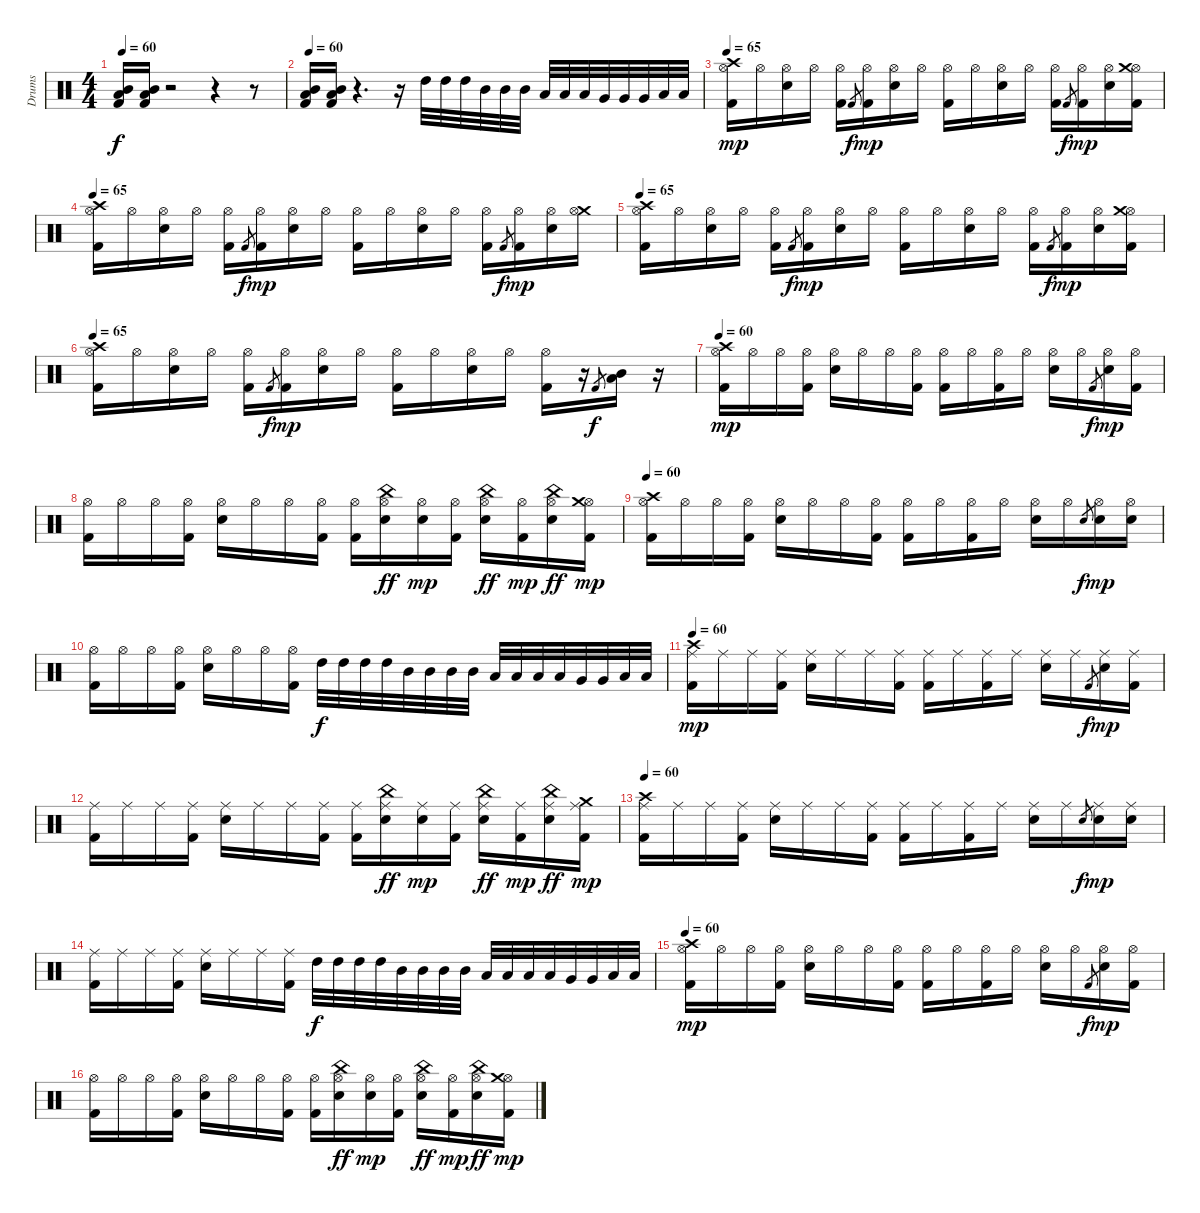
\track ("Drums" "Drums") {instrument percussion}
\staff {score}
\articulation defaults
\ts (4 4)
\tempo 60
\clef neutral
\ks c
("Mid Tom (hit)" "Low Tom (hit)" "Kick (hit) 2").16{dy f} ("Mid Tom (hit)" "Low Tom (hit)" "Kick (hit) 2").16 r.2 r.4 r.8 |
\tempo 60
("Mid Tom (hit)" "Low Tom (hit)" "Kick (hit) 2").16 ("Mid Tom (hit)" "Low Tom (hit)" "Kick (hit) 2").16 r.4{d} r.16 "High Tom (hit)".32 "High Tom (hit)".32 "High Tom (hit)".32 "Mid Tom (hit)".32 "Mid Tom (hit)".32 "Mid Tom (hit)".32 "Low Tom (hit)".32 "Low Tom (hit)".32 "Low Tom (hit)".32 "Very Low Tom (hit)".32 "Very Low Tom (hit)".32 "Very Low Tom (hit)".32 "Low Floor Tom (hit)".32 "Low Floor Tom (hit)".32 |
\tempo 60
\tempo 65
("Crash high (hit)" "Hi-Hat (open)" "Kick (hit) 2").16{dy mp} "Hi-Hat (open)".16 ("Hi-Hat (open)" "Snare (hit) 2").16 "Hi-Hat (open)".16 ("Hi-Hat (open)" "Kick (hit) 2").16 "Kick (hit) 2".8{gr dy f} ("Hi-Hat (open)" "Kick (hit) 2").16{dy mp} ("Hi-Hat (open)" "Snare (hit) 2").16 "Hi-Hat (open)".16 ("Hi-Hat (open)" "Kick (hit) 2").16 "Hi-Hat (open)".16 ("Hi-Hat (open)" "Snare (hit) 2").16 "Hi-Hat (open)".16 ("Hi-Hat (open)" "Kick (hit) 2").16 "Kick (hit) 2".8{gr dy f} ("Hi-Hat (open)" "Kick (hit) 2").16{dy mp} ("Hi-Hat (open)" "Snare (hit) 2").16 ("Hi-Hat (open)" "Crash medium (hit)" "Kick (hit) 2").16 |
\tempo 60
\tempo 65
("Crash high (hit)" "Hi-Hat (open)" "Kick (hit) 2").16 "Hi-Hat (open)".16 ("Hi-Hat (open)" "Snare (hit) 2").16 "Hi-Hat (open)".16 ("Hi-Hat (open)" "Kick (hit) 2").16 "Kick (hit) 2".8{gr dy f} ("Hi-Hat (open)" "Kick (hit) 2").16{dy mp} ("Hi-Hat (open)" "Snare (hit) 2").16 "Hi-Hat (open)".16 ("Hi-Hat (open)" "Kick (hit) 2").16 "Hi-Hat (open)".16 ("Hi-Hat (open)" "Snare (hit) 2").16 "Hi-Hat (open)".16 ("Hi-Hat (open)" "Kick (hit) 2").16 "Kick (hit) 2".8{gr dy f} ("Hi-Hat (open)" "Kick (hit) 2").16{dy mp} ("Hi-Hat (open)" "Snare (hit) 2").16 ("Crash medium (hit)" "Hi-Hat (open)").16 |
\tempo 60
\tempo 65
("Crash high (hit)" "Hi-Hat (open)" "Kick (hit) 2").16 "Hi-Hat (open)".16 ("Hi-Hat (open)" "Snare (hit) 2").16 "Hi-Hat (open)".16 ("Hi-Hat (open)" "Kick (hit) 2").16 "Kick (hit) 2".8{gr dy f} ("Hi-Hat (open)" "Kick (hit) 2").16{dy mp} ("Hi-Hat (open)" "Snare (hit) 2").16 "Hi-Hat (open)".16 ("Hi-Hat (open)" "Kick (hit) 2").16 "Hi-Hat (open)".16 ("Hi-Hat (open)" "Snare (hit) 2").16 "Hi-Hat (open)".16 ("Hi-Hat (open)" "Kick (hit) 2").16 "Kick (hit) 2".8{gr dy f} ("Hi-Hat (open)" "Kick (hit) 2").16{dy mp} ("Hi-Hat (open)" "Snare (hit) 2").16 ("Hi-Hat (open)" "Crash medium (hit)" "Kick (hit) 2").16 |
\tempo 60
\tempo 65
("Crash high (hit)" "Hi-Hat (open)" "Kick (hit) 2").16 "Hi-Hat (open)".16 ("Hi-Hat (open)" "Snare (hit) 2").16 "Hi-Hat (open)".16 ("Hi-Hat (open)" "Kick (hit) 2").16 "Kick (hit) 2".8{gr dy f} ("Hi-Hat (open)" "Kick (hit) 2").16{dy mp} ("Hi-Hat (open)" "Snare (hit) 2").16 "Hi-Hat (open)".16 ("Hi-Hat (open)" "Kick (hit) 2").16 "Hi-Hat (open)".16 ("Hi-Hat (open)" "Snare (hit) 2").16 "Hi-Hat (open)".16 ("Hi-Hat (open)" "Kick (hit) 2").16 r.16 "Kick (hit) 2".8{gr dy f} ("Mid Tom (hit)" "Low Tom (hit)").16 r.16 |
\tempo 60
("Crash high (hit)" "Hi-Hat (open)" "Kick (hit) 2").16{dy mp} "Hi-Hat (open)".16 "Hi-Hat (open)".16 ("Hi-Hat (open)" "Kick (hit) 2").16 ("Hi-Hat (open)" "Snare (hit) 2").16 "Hi-Hat (open)".16 "Hi-Hat (open)".16 ("Hi-Hat (open)" "Kick (hit) 2").16 ("Hi-Hat (open)" "Kick (hit) 2").16 "Hi-Hat (open)".16 ("Hi-Hat (open)" "Kick (hit) 2").16 "Hi-Hat (open)".16 ("Hi-Hat (open)" "Snare (hit) 2").16 "Hi-Hat (open)".16 "Kick (hit) 2".8{gr dy f} ("Hi-Hat (open)" "Snare (hit) 2").16{dy mp} ("Hi-Hat (open)" "Kick (hit) 2").16 |
("Hi-Hat (open)" "Kick (hit) 2").16 "Hi-Hat (open)".16 "Hi-Hat (open)".16 ("Hi-Hat (open)" "Kick (hit) 2").16 ("Hi-Hat (open)" "Snare (hit) 2").16 "Hi-Hat (open)".16 "Hi-Hat (open)".16 ("Hi-Hat (open)" "Kick (hit) 2").16 ("Hi-Hat (open)" "Kick (hit) 2").16 ("Hi-Hat (open)" "China (hit)" "Snare (hit) 2").16{dy ff} ("Hi-Hat (open)" "Snare (hit) 2").16{dy mp} ("Hi-Hat (open)" "Kick (hit) 2").16 ("Hi-Hat (open)" "China (hit)" "Snare (hit) 2").16{dy ff} ("Hi-Hat (open)" "Kick (hit) 2").16{dy mp} ("Hi-Hat (open)" "China (hit)" "Snare (hit) 2").16{dy ff} ("Hi-Hat (open)" "Crash medium (hit)" "Kick (hit) 2").16{dy mp} |
\tempo 60
("Crash high (hit)" "Hi-Hat (open)" "Kick (hit) 2").16 "Hi-Hat (open)".16 "Hi-Hat (open)".16 ("Hi-Hat (open)" "Kick (hit) 2").16 ("Hi-Hat (open)" "Snare (hit) 2").16 "Hi-Hat (open)".16 "Hi-Hat (open)".16 ("Hi-Hat (open)" "Kick (hit) 2").16 ("Hi-Hat (open)" "Kick (hit) 2").16 "Hi-Hat (open)".16 ("Hi-Hat (open)" "Kick (hit) 2").16 "Hi-Hat (open)".16 ("Hi-Hat (open)" "Snare (hit) 2").16 "Hi-Hat (open)".16 "Snare (hit) 2".8{gr dy f} ("Hi-Hat (open)" "Snare (hit) 2").16{dy mp} ("Hi-Hat (open)" "Snare (hit) 2").16 |
("Hi-Hat (open)" "Kick (hit) 2").16 "Hi-Hat (open)".16 "Hi-Hat (open)".16 ("Hi-Hat (open)" "Kick (hit) 2").16 ("Hi-Hat (open)" "Snare (hit) 2").16 "Hi-Hat (open)".16 "Hi-Hat (open)".16 ("Hi-Hat (open)" "Kick (hit) 2").16 "High Tom (hit)".32{dy f} "High Tom (hit)".32 "High Tom (hit)".32 "High Tom (hit)".32 "Mid Tom (hit)".32 "Mid Tom (hit)".32 "Mid Tom (hit)".32 "Mid Tom (hit)".32 "Low Tom (hit)".32 "Low Tom (hit)".32 "Low Tom (hit)".32 "Low Tom (hit)".32 "Very Low Tom (hit)".32 "Very Low Tom (hit)".32 "Low Floor Tom (hit)".32 "Low Floor Tom (hit)".32 |
\tempo 60
("Crash high (hit)" "Ride (middle)" "Kick (hit) 2").16{dy mp} "Ride (middle)".16 "Ride (middle)".16 ("Ride (middle)" "Kick (hit) 2").16 ("Ride (middle)" "Snare (hit) 2").16 "Ride (middle)".16 "Ride (middle)".16 ("Ride (middle)" "Kick (hit) 2").16 ("Ride (middle)" "Kick (hit) 2").16 "Ride (middle)".16 ("Ride (middle)" "Kick (hit) 2").16 "Ride (middle)".16 ("Ride (middle)" "Snare (hit) 2").16 "Ride (middle)".16 "Kick (hit) 2".8{gr dy f} ("Ride (middle)" "Snare (hit) 2").16{dy mp} ("Ride (middle)" "Kick (hit) 2").16 |
("Ride (middle)" "Kick (hit) 2").16 "Ride (middle)".16 "Ride (middle)".16 ("Ride (middle)" "Kick (hit) 2").16 ("Ride (middle)" "Snare (hit) 2").16 "Ride (middle)".16 "Ride (middle)".16 ("Ride (middle)" "Kick (hit) 2").16 ("Ride (middle)" "Kick (hit) 2").16 ("Ride (middle)" "China (hit)" "Snare (hit) 2").16{dy ff} ("Ride (middle)" "Snare (hit) 2").16{dy mp} ("Ride (middle)" "Kick (hit) 2").16 ("Ride (middle)" "China (hit)" "Snare (hit) 2").16{dy ff} ("Ride (middle)" "Kick (hit) 2").16{dy mp} ("Ride (middle)" "China (hit)" "Snare (hit) 2").16{dy ff} ("Ride (middle)" "Crash medium (hit)" "Kick (hit) 2").16{dy mp} |
\tempo 60
("Crash high (hit)" "Ride (middle)" "Kick (hit) 2").16 "Ride (middle)".16 "Ride (middle)".16 ("Ride (middle)" "Kick (hit) 2").16 ("Ride (middle)" "Snare (hit) 2").16 "Ride (middle)".16 "Ride (middle)".16 ("Ride (middle)" "Kick (hit) 2").16 ("Ride (middle)" "Kick (hit) 2").16 "Ride (middle)".16 ("Ride (middle)" "Kick (hit) 2").16 "Ride (middle)".16 ("Ride (middle)" "Snare (hit) 2").16 "Ride (middle)".16 "Snare (hit) 2".8{gr dy f} ("Ride (middle)" "Snare (hit) 2").16{dy mp} ("Ride (middle)" "Snare (hit) 2").16 |
("Ride (middle)" "Kick (hit) 2").16 "Ride (middle)".16 "Ride (middle)".16 ("Ride (middle)" "Kick (hit) 2").16 ("Ride (middle)" "Snare (hit) 2").16 "Ride (middle)".16 "Ride (middle)".16 ("Ride (middle)" "Kick (hit) 2").16 "High Tom (hit)".32{dy f} "High Tom (hit)".32 "High Tom (hit)".32 "High Tom (hit)".32 "Mid Tom (hit)".32 "Mid Tom (hit)".32 "Mid Tom (hit)".32 "Mid Tom (hit)".32 "Low Tom (hit)".32 "Low Tom (hit)".32 "Low Tom (hit)".32 "Low Tom (hit)".32 "Very Low Tom (hit)".32 "Very Low Tom (hit)".32 "Low Floor Tom (hit)".32 "Low Floor Tom (hit)".32 |
\tempo 60
("Crash high (hit)" "Hi-Hat (open)" "Kick (hit) 2").16{dy mp} "Hi-Hat (open)".16 "Hi-Hat (open)".16 ("Hi-Hat (open)" "Kick (hit) 2").16 ("Hi-Hat (open)" "Snare (hit) 2").16 "Hi-Hat (open)".16 "Hi-Hat (open)".16 ("Hi-Hat (open)" "Kick (hit) 2").16 ("Hi-Hat (open)" "Kick (hit) 2").16 "Hi-Hat (open)".16 ("Hi-Hat (open)" "Kick (hit) 2").16 "Hi-Hat (open)".16 ("Hi-Hat (open)" "Snare (hit) 2").16 "Hi-Hat (open)".16 "Kick (hit) 2".8{gr dy f} ("Hi-Hat (open)" "Snare (hit) 2").16{dy mp} ("Hi-Hat (open)" "Kick (hit) 2").16 |
("Hi-Hat (open)" "Kick (hit) 2").16 "Hi-Hat (open)".16 "Hi-Hat (open)".16 ("Hi-Hat (open)" "Kick (hit) 2").16 ("Hi-Hat (open)" "Snare (hit) 2").16 "Hi-Hat (open)".16 "Hi-Hat (open)".16 ("Hi-Hat (open)" "Kick (hit) 2").16 ("Hi-Hat (open)" "Kick (hit) 2").16 ("Hi-Hat (open)" "China (hit)" "Snare (hit) 2").16{dy ff} ("Hi-Hat (open)" "Snare (hit) 2").16{dy mp} ("Hi-Hat (open)" "Kick (hit) 2").16 ("Hi-Hat (open)" "China (hit)" "Snare (hit) 2").16{dy ff} ("Hi-Hat (open)" "Kick (hit) 2").16{dy mp} ("Hi-Hat (open)" "China (hit)" "Snare (hit) 2").16{dy ff} ("Hi-Hat (open)" "Crash medium (hit)" "Kick (hit) 2").16{dy mp}
